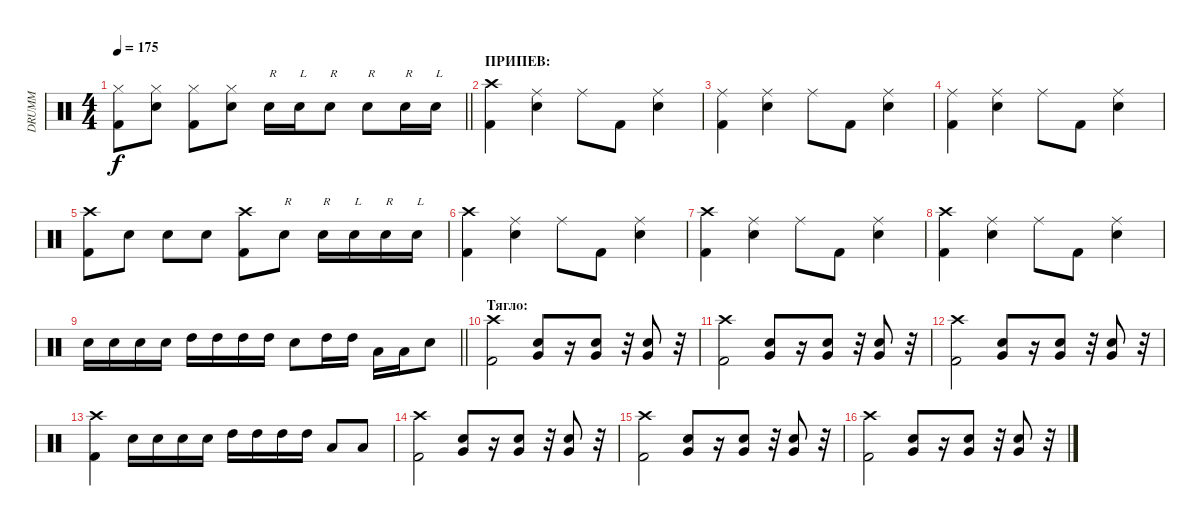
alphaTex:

\track ("DRUMM" "DRUMM") {instrument percussion}
\staff {score}
\articulation defaults
\ts (4 4)
\tempo 175
\clef neutral
\barLineRight lightlight
\ks c
("Hi-Hat (closed)" "Kick (hit) 2").8{dy f} ("Hi-Hat (closed)" "Electric Snare (hit)").8 ("Hi-Hat (closed)" "Kick (hit) 2").8 ("Hi-Hat (closed)" "Electric Snare (hit)").8 "Electric Snare (hit)".16{txt "R"} "Electric Snare (hit)".16{txt "L"} "Electric Snare (hit)".8{txt "R"} "Electric Snare (hit)".8{txt "R"} "Electric Snare (hit)".16{txt "R"} "Electric Snare (hit)".16{txt "L"} |
\section ("" "ПРИПЕВ:")
("Crash high (hit)" "Kick (hit) 2").4 ("Ride (middle)" "Electric Snare (hit)").4 "Ride (middle)".8 "Kick (hit) 2".8 ("Electric Snare (hit)" "Ride (middle)").4 |
("Ride (middle)" "Kick (hit) 2").4 ("Electric Snare (hit)" "Ride (middle)").4 "Ride (middle)".8 "Kick (hit) 2".8 ("Electric Snare (hit)" "Ride (middle)").4 |
("Ride (middle)" "Kick (hit) 2").4 ("Electric Snare (hit)" "Ride (middle)").4 "Ride (middle)".8 "Kick (hit) 2".8 ("Electric Snare (hit)" "Ride (middle)").4 |
("Crash high (hit)" "Kick (hit) 2").8 "Electric Snare (hit)".8 "Electric Snare (hit)".8 "Electric Snare (hit)".8 ("Crash high (hit)" "Kick (hit) 2").8 "Electric Snare (hit)".8{txt "R"} "Electric Snare (hit)".16{txt "R"} "Electric Snare (hit)".16{txt "L"} "Electric Snare (hit)".16{txt "R"} "Electric Snare (hit)".16{txt "L"} |
("Crash high (hit)" "Kick (hit) 2").4 ("Ride (middle)" "Electric Snare (hit)").4 "Ride (middle)".8 "Kick (hit) 2".8 ("Electric Snare (hit)" "Ride (middle)").4 |
("Crash high (hit)" "Kick (hit) 2").4 ("Electric Snare (hit)" "Ride (middle)").4 "Ride (middle)".8 "Kick (hit) 2".8 ("Electric Snare (hit)" "Ride (middle)").4 |
("Crash high (hit)" "Kick (hit) 2").4 ("Electric Snare (hit)" "Ride (middle)").4 "Ride (middle)".8 "Kick (hit) 2".8 ("Electric Snare (hit)" "Ride (middle)").4 |
\barLineRight lightlight "Electric Snare (hit)".16 "Electric Snare (hit)".16 "Electric Snare (hit)".16 "Electric Snare (hit)".16 "High Tom (hit)".16 "High Tom (hit)".16 "High Tom (hit)".16 "High Tom (hit)".16 "Electric Snare (hit)".8 "High Tom (hit)".16 "High Tom (hit)".16 "Low Tom (hit)".16 "Low Tom (hit)".16 "Electric Snare (hit)".8
|
\section ("" "Тягло:")
("Crash high (hit)" "Kick (hit) 2").2 ("Electric Snare (hit)" "Very Low Tom (hit)").8 r.16 ("Electric Snare (hit)" "Very Low Tom (hit)").8 r.32 ("Electric Snare (hit)" "Very Low Tom (hit)").8 r.32 |
("Crash high (hit)" "Kick (hit) 2").2 ("Electric Snare (hit)" "Very Low Tom (hit)").8 r.16 ("Electric Snare (hit)" "Very Low Tom (hit)").8 r.32 ("Electric Snare (hit)" "Very Low Tom (hit)").8 r.32 |
("Crash high (hit)" "Kick (hit) 2").2 ("Electric Snare (hit)" "Very Low Tom (hit)").8 r.16 ("Electric Snare (hit)" "Very Low Tom (hit)").8 r.32 ("Electric Snare (hit)" "Very Low Tom (hit)").8 r.32 |
("Crash high (hit)" "Kick (hit) 2").4 "Electric Snare (hit)".16 "Electric Snare (hit)".16 "Electric Snare (hit)".16 "Electric Snare (hit)".16 "High Tom (hit)".16 "High Tom (hit)".16 "High Tom (hit)".16 "High Tom (hit)".16 "Low Tom (hit)".8 "Low Tom (hit)".8 |
("Crash high (hit)" "Kick (hit) 2").2 ("Electric Snare (hit)" "Very Low Tom (hit)").8 r.16 ("Electric Snare (hit)" "Very Low Tom (hit)").8 r.32 ("Electric Snare (hit)" "Very Low Tom (hit)").8 r.32 |
("Crash high (hit)" "Kick (hit) 2").2 ("Electric Snare (hit)" "Very Low Tom (hit)").8 r.16 ("Electric Snare (hit)" "Very Low Tom (hit)").8 r.32 ("Electric Snare (hit)" "Very Low Tom (hit)").8 r.32 |
("Crash high (hit)" "Kick (hit) 2").2 ("Electric Snare (hit)" "Very Low Tom (hit)").8 r.16 ("Electric Snare (hit)" "Very Low Tom (hit)").8 r.32 ("Electric Snare (hit)" "Very Low Tom (hit)").8 r.32
